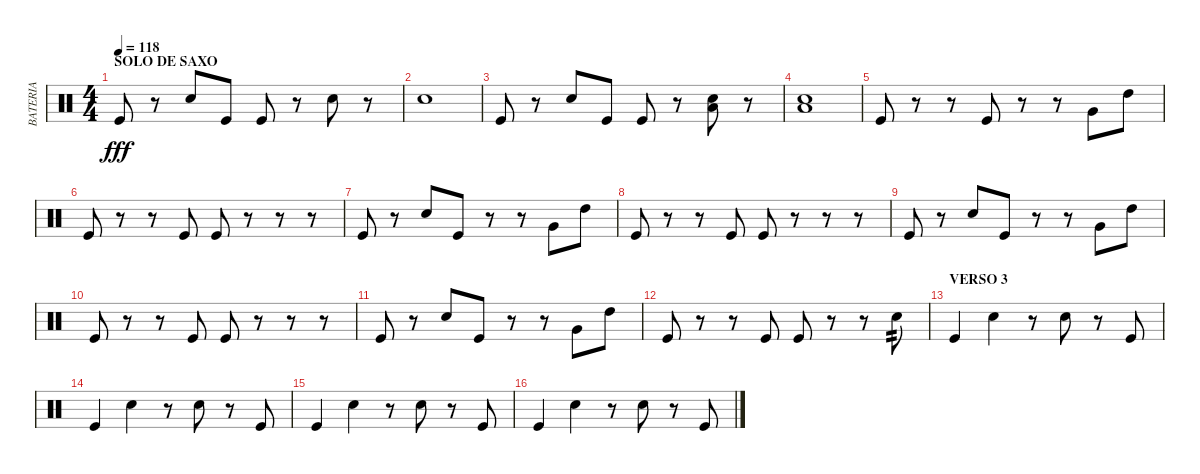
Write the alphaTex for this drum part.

\track ("BATERIA" "BATERIA") {instrument percussion}
\staff {score}
\articulation defaults
\ts (4 4)
\section ("" "SOLO DE SAXO")
\tempo 118
\clef neutral
\ks c "Kick (hit)".8{dy fff}
r.8 "Snare (hit) 2".8 "Kick (hit)".8 "Kick (hit)".8 r.8 "Snare (hit) 2".8 r.8 |
"Snare (hit) 2".1 |
"Kick (hit)".8 r.8 "Snare (hit) 2".8 "Kick (hit)".8 "Kick (hit)".8 r.8 ("Low Tom (hit)" "Snare (hit) 2").8 r.8 |
("Low Tom (hit)" "Snare (hit) 2").1 |
\section ("" "")
"Kick (hit)".8 r.8 r.8 "Kick (hit)".8 r.8 r.8 "Very Low Tom (hit)".8 "High Tom (hit)".8 |
"Kick (hit)".8 r.8 r.8 "Kick (hit)".8 "Kick (hit)".8 r.8 r.8 r.8 |
"Kick (hit)".8 r.8 "Snare (hit) 2".8 "Kick (hit)".8 r.8 r.8 "Very Low Tom (hit)".8 "High Tom (hit)".8 |
"Kick (hit)".8 r.8 r.8 "Kick (hit)".8 "Kick (hit)".8 r.8 r.8 r.8 |
"Kick (hit)".8 r.8 "Snare (hit) 2".8 "Kick (hit)".8 r.8 r.8 "Very Low Tom (hit)".8 "High Tom (hit)".8 |
"Kick (hit)".8 r.8 r.8 "Kick (hit)".8 "Kick (hit)".8 r.8 r.8 r.8 |
"Kick (hit)".8 r.8 "Snare (hit) 2".8 "Kick (hit)".8 r.8 r.8 "Very Low Tom (hit)".8 "High Tom (hit)".8 |
"Kick (hit)".8 r.8 r.8 "Kick (hit)".8 "Kick (hit)".8 r.8 r.8 "Snare (hit) 2".8{tp 2} |
\section ("" "VERSO 3")
"Kick (hit)".4 "Snare (hit) 2".4 r.8 "Snare (hit) 2".8 r.8 "Kick (hit)".8 |
"Kick (hit)".4 "Snare (hit) 2".4 r.8 "Snare (hit) 2".8 r.8 "Kick (hit)".8 |
"Kick (hit)".4 "Snare (hit) 2".4 r.8 "Snare (hit) 2".8 r.8 "Kick (hit)".8 |
"Kick (hit)".4 "Snare (hit) 2".4 r.8 "Snare (hit) 2".8 r.8 "Kick (hit)".8
